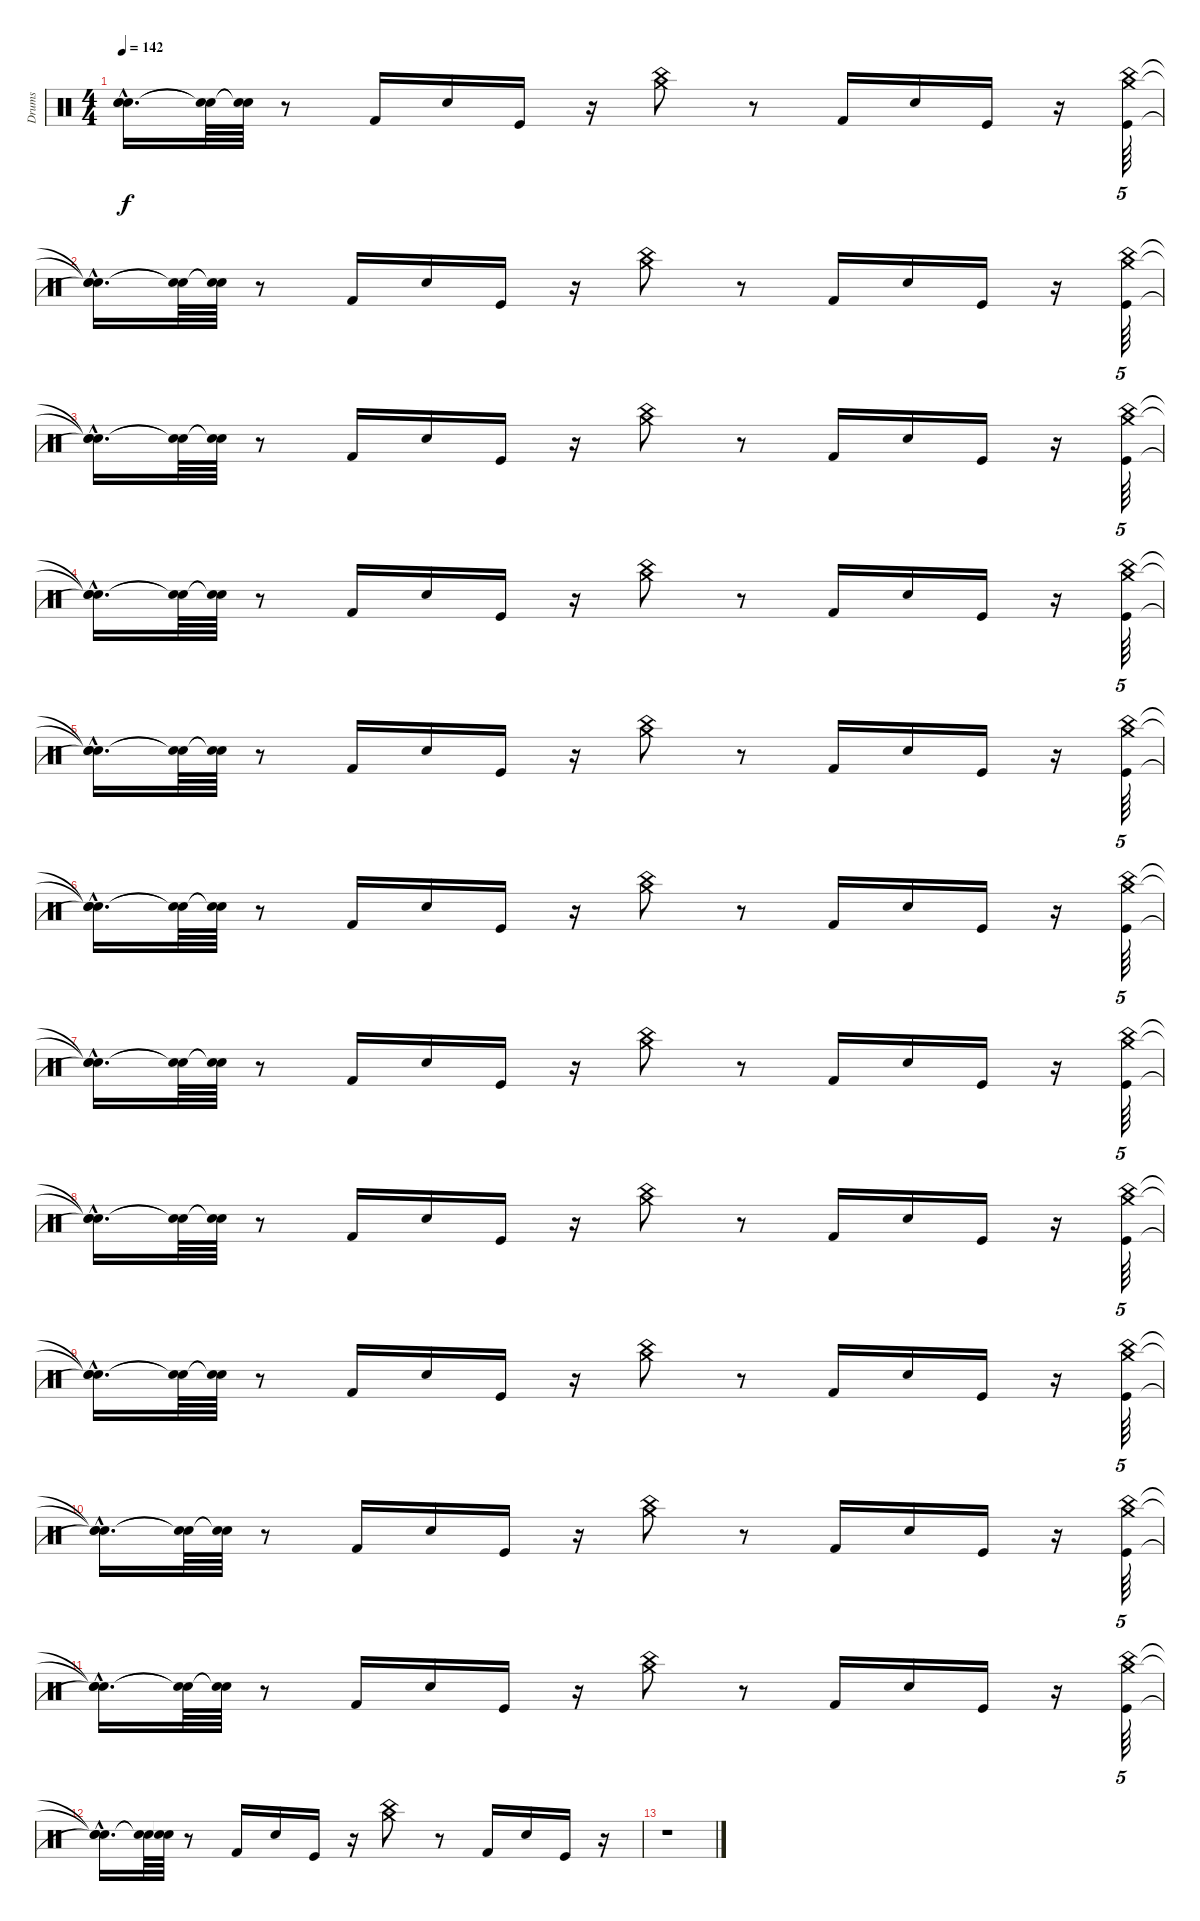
\track ("Drums" "Drums") {instrument percussion}
\staff {score}
\articulation defaults
\ts (4 4)
\tempo 142
\clef neutral
\ks c
("Snare (hit)"{t} "Snare (hit)"{hac t} "Snare (hit)"{hac t}).16{d dy f} ("Snare (hit)"{t} "Snare (hit)"{t}).64 ("Snare (hit)"{t} "Snare (hit)"{t}).64 r.8 "Kick (hit) 2".16 "Snare (hit) 2".16 "Kick (hit)".16 r.16 ("China (hit)" "Crash medium (hit)").8 r.8 "Kick (hit) 2".16 "Snare (hit) 2".16 "Kick (hit)".16 r.16 ("Kick (hit)" "China (hit)" "Crash medium (hit)").64{tu (5 4)} |
("Snare (hit)"{t} "Snare (hit)"{hac t} "Snare (hit)"{hac t}).16{d} ("Snare (hit)"{t} "Snare (hit)"{t}).64 ("Snare (hit)"{t} "Snare (hit)"{t}).64 r.8 "Kick (hit) 2".16 "Snare (hit) 2".16 "Kick (hit)".16 r.16 ("China (hit)" "Crash medium (hit)").8 r.8 "Kick (hit) 2".16 "Snare (hit) 2".16 "Kick (hit)".16 r.16 ("Kick (hit)" "China (hit)" "Crash medium (hit)").64{tu (5 4) volume 14} |
("Snare (hit)"{t} "Snare (hit)"{hac t} "Snare (hit)"{hac t}).16{d} ("Snare (hit)"{t} "Snare (hit)"{t}).64 ("Snare (hit)"{t} "Snare (hit)"{t}).64 r.8 "Kick (hit) 2".16{volume 14} "Snare (hit) 2".16{volume 14} "Kick (hit)".16{volume 14} r.16 ("China (hit)" "Crash medium (hit)").8{volume 14} r.8 "Kick (hit) 2".16{volume 14} "Snare (hit) 2".16{volume 13} "Kick (hit)".16{volume 13} r.16 ("Kick (hit)" "China (hit)" "Crash medium (hit)").64{tu (5 4) volume 13} |
("Snare (hit)"{t} "Snare (hit)"{hac t} "Snare (hit)"{hac t}).16{d} ("Snare (hit)"{t} "Snare (hit)"{t}).64 ("Snare (hit)"{t} "Snare (hit)"{t}).64 r.8 "Kick (hit) 2".16{volume 13} "Snare (hit) 2".16{volume 13} "Kick (hit)".16 r.16 ("China (hit)" "Crash medium (hit)").8{volume 12} r.8 "Kick (hit) 2".16{volume 12} "Snare (hit) 2".16{volume 12} "Kick (hit)".16 r.16 ("Kick (hit)" "China (hit)" "Crash medium (hit)").64{tu (5 4) volume 12} |
("Snare (hit)"{t} "Snare (hit)"{hac t} "Snare (hit)"{hac t}).16{d} ("Snare (hit)"{t} "Snare (hit)"{t}).64 ("Snare (hit)"{t} "Snare (hit)"{t}).64 r.8 "Kick (hit) 2".16{volume 11} "Snare (hit) 2".16 "Kick (hit)".16{volume 11} r.16 ("China (hit)" "Crash medium (hit)").8{volume 11} r.8 "Kick (hit) 2".16{volume 11} "Snare (hit) 2".16{volume 10} "Kick (hit)".16{volume 10} r.16 ("Kick (hit)" "China (hit)" "Crash medium (hit)").64{tu (5 4) volume 10} |
("Snare (hit)"{t} "Snare (hit)"{hac t} "Snare (hit)"{hac t}).16{d} ("Snare (hit)"{t} "Snare (hit)"{t}).64 ("Snare (hit)"{t} "Snare (hit)"{t}).64 r.8 "Kick (hit) 2".16{volume 10} "Snare (hit) 2".16{volume 10} "Kick (hit)".16{volume 10} r.16 ("China (hit)" "Crash medium (hit)").8{volume 10} r.8 "Kick (hit) 2".16{volume 9} "Snare (hit) 2".16{volume 9} "Kick (hit)".16 r.16 ("Kick (hit)" "China (hit)" "Crash medium (hit)").64{tu (5 4) volume 9} |
("Snare (hit)"{t} "Snare (hit)"{hac t} "Snare (hit)"{hac t}).16{d} ("Snare (hit)"{t} "Snare (hit)"{t}).64 ("Snare (hit)"{t} "Snare (hit)"{t}).64 r.8 "Kick (hit) 2".16{volume 8} "Snare (hit) 2".16{volume 8} "Kick (hit)".16 r.16 ("China (hit)" "Crash medium (hit)").8{volume 8} r.8 "Kick (hit) 2".16{volume 8} "Snare (hit) 2".16 "Kick (hit)".16{volume 8} r.16 ("Kick (hit)" "China (hit)" "Crash medium (hit)").64{tu (5 4) volume 7} |
("Snare (hit)"{t} "Snare (hit)"{hac t} "Snare (hit)"{hac t}).16{d} ("Snare (hit)"{t} "Snare (hit)"{t}).64 ("Snare (hit)"{t} "Snare (hit)"{t}).64 r.8 "Kick (hit) 2".16{volume 7} "Snare (hit) 2".16{volume 7} "Kick (hit)".16{volume 7} r.16 ("China (hit)" "Crash medium (hit)").8{volume 7} r.8 "Kick (hit) 2".16{volume 6} "Snare (hit) 2".16{volume 6} "Kick (hit)".16{volume 6} r.16 ("Kick (hit)" "China (hit)" "Crash medium (hit)").64{tu (5 4) volume 6} |
("Snare (hit)"{t} "Snare (hit)"{hac t} "Snare (hit)"{hac t}).16{d} ("Snare (hit)"{t} "Snare (hit)"{t}).64 ("Snare (hit)"{t} "Snare (hit)"{t}).64 r.8 "Kick (hit) 2".16{volume 6} "Snare (hit) 2".16{volume 5} "Kick (hit)".16 r.16 ("China (hit)" "Crash medium (hit)").8{volume 5} r.8 "Kick (hit) 2".16{volume 5} "Snare (hit) 2".16{volume 5} "Kick (hit)".16 r.16 ("Kick (hit)" "China (hit)" "Crash medium (hit)").64{tu (5 4) volume 4} |
("Snare (hit)"{t} "Snare (hit)"{hac t} "Snare (hit)"{hac t}).16{d} ("Snare (hit)"{t} "Snare (hit)"{t}).64 ("Snare (hit)"{t} "Snare (hit)"{t}).64 r.8 "Kick (hit) 2".16{volume 4} "Snare (hit) 2".16 "Kick (hit)".16{volume 4} r.16 ("China (hit)" "Crash medium (hit)").8{volume 4} r.8 "Kick (hit) 2".16{volume 3} "Snare (hit) 2".16{volume 3} "Kick (hit)".16{volume 3} r.16 ("Kick (hit)" "China (hit)" "Crash medium (hit)").64{tu (5 4) volume 3} |
("Snare (hit)"{t} "Snare (hit)"{hac t} "Snare (hit)"{hac t}).16{d} ("Snare (hit)"{t} "Snare (hit)"{t}).64 ("Snare (hit)"{t} "Snare (hit)"{t}).64 r.8 "Kick (hit) 2".16{volume 3} "Snare (hit) 2".16{volume 2} "Kick (hit)".16{volume 2} r.16 ("China (hit)" "Crash medium (hit)").8{volume 2} r.8 "Kick (hit) 2".16{volume 2} "Snare (hit) 2".16{volume 2} "Kick (hit)".16 r.16 ("Kick (hit)" "China (hit)" "Crash medium (hit)").64{tu (5 4) volume 2} |
("Snare (hit)"{t} "Snare (hit)"{hac t} "Snare (hit)"{hac t}).16{d} ("Snare (hit)"{t} "Snare (hit)"{t}).64 ("Snare (hit)"{t} "Snare (hit)"{t}).64 r.8 "Kick (hit) 2".16{volume 1} "Snare (hit) 2".16{volume 1} "Kick (hit)".16 r.16 ("China (hit)" "Crash medium (hit)").8{volume 1} r.8 "Kick (hit) 2".16{volume 0} "Snare (hit) 2".16 "Kick (hit)".16{volume 0} r.16 |
r.1
